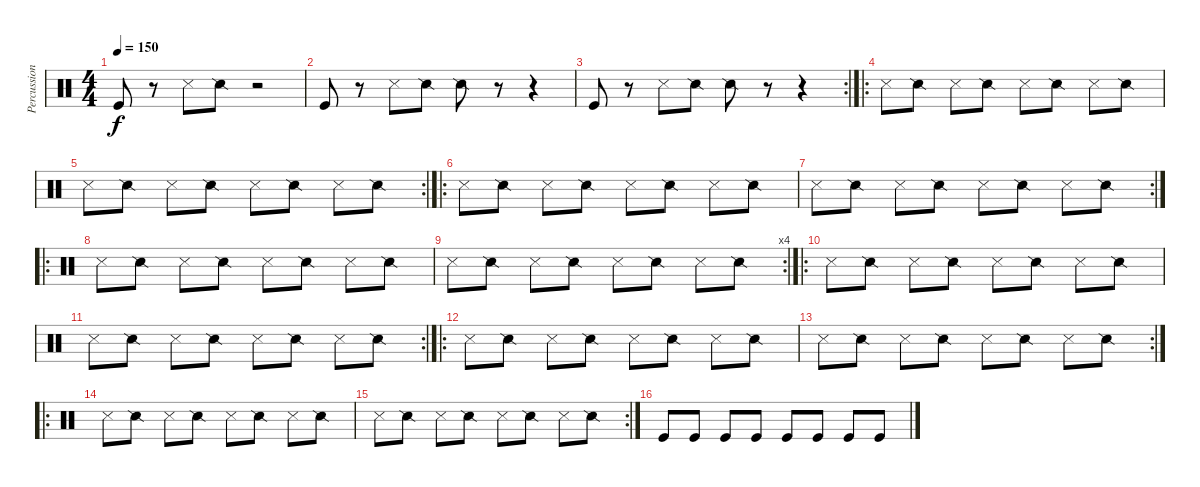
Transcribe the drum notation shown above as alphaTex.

\track ("Percussions" "Percussion") {instrument percussion}
\staff {score}
\articulation defaults
\ts (4 4)
\tempo 150
\clef neutral
\ks c "Kick (hit)".8{dy f}
r.8 "Snare (side stick) 3".8 "Snare (side stick) 2".8 r.2 |
"Kick (hit)".8 r.8 "Snare (side stick) 3".8 "Snare (side stick) 2".8 "Snare (side stick) 2".8 r.8 r.4 |
\rc 2 "Kick (hit)".8
r.8 "Snare (side stick) 3".8 "Snare (side stick) 2".8 "Snare (side stick) 2".8 r.8 r.4 |
\ro "Snare (side stick) 3".8 "Snare (side stick) 2".8 "Snare (side stick) 3".8 "Snare (side stick) 2".8 "Snare (side stick) 3".8 "Snare (side stick) 2".8 "Snare (side stick) 3".8 "Snare (side stick) 2".8
|
\rc 2 "Snare (side stick) 3".8 "Snare (side stick) 2".8 "Snare (side stick) 3".8 "Snare (side stick) 2".8 "Snare (side stick) 3".8 "Snare (side stick) 2".8 "Snare (side stick) 3".8 "Snare (side stick) 2".8
|
\ro "Snare (side stick) 3".8 "Snare (side stick) 2".8 "Snare (side stick) 3".8 "Snare (side stick) 2".8 "Snare (side stick) 3".8 "Snare (side stick) 2".8 "Snare (side stick) 3".8 "Snare (side stick) 2".8
|
\rc 2 "Snare (side stick) 3".8 "Snare (side stick) 2".8 "Snare (side stick) 3".8 "Snare (side stick) 2".8 "Snare (side stick) 3".8 "Snare (side stick) 2".8 "Snare (side stick) 3".8 "Snare (side stick) 2".8
|
\ro "Snare (side stick) 3".8 "Snare (side stick) 2".8 "Snare (side stick) 3".8 "Snare (side stick) 2".8 "Snare (side stick) 3".8 "Snare (side stick) 2".8 "Snare (side stick) 3".8 "Snare (side stick) 2".8
|
\rc 4 "Snare (side stick) 3".8 "Snare (side stick) 2".8 "Snare (side stick) 3".8 "Snare (side stick) 2".8 "Snare (side stick) 3".8 "Snare (side stick) 2".8 "Snare (side stick) 3".8 "Snare (side stick) 2".8
|
\ro "Snare (side stick) 3".8 "Snare (side stick) 2".8 "Snare (side stick) 3".8 "Snare (side stick) 2".8 "Snare (side stick) 3".8 "Snare (side stick) 2".8 "Snare (side stick) 3".8 "Snare (side stick) 2".8
|
\rc 2 "Snare (side stick) 3".8 "Snare (side stick) 2".8 "Snare (side stick) 3".8 "Snare (side stick) 2".8 "Snare (side stick) 3".8 "Snare (side stick) 2".8 "Snare (side stick) 3".8 "Snare (side stick) 2".8
|
\ro "Snare (side stick) 3".8 "Snare (side stick) 2".8 "Snare (side stick) 3".8 "Snare (side stick) 2".8 "Snare (side stick) 3".8 "Snare (side stick) 2".8 "Snare (side stick) 3".8 "Snare (side stick) 2".8
|
\rc 2 "Snare (side stick) 3".8 "Snare (side stick) 2".8 "Snare (side stick) 3".8 "Snare (side stick) 2".8 "Snare (side stick) 3".8 "Snare (side stick) 2".8 "Snare (side stick) 3".8 "Snare (side stick) 2".8
|
\ro "Snare (side stick) 3".8 "Snare (side stick) 2".8 "Snare (side stick) 3".8 "Snare (side stick) 2".8 "Snare (side stick) 3".8 "Snare (side stick) 2".8 "Snare (side stick) 3".8 "Snare (side stick) 2".8
|
\rc 2 "Snare (side stick) 3".8 "Snare (side stick) 2".8 "Snare (side stick) 3".8 "Snare (side stick) 2".8 "Snare (side stick) 3".8 "Snare (side stick) 2".8 "Snare (side stick) 3".8 "Snare (side stick) 2".8
|
"Kick (hit)".8 "Kick (hit)".8 "Kick (hit)".8 "Kick (hit)".8 "Kick (hit)".8 "Kick (hit)".8 "Kick (hit)".8 "Kick (hit)".8
